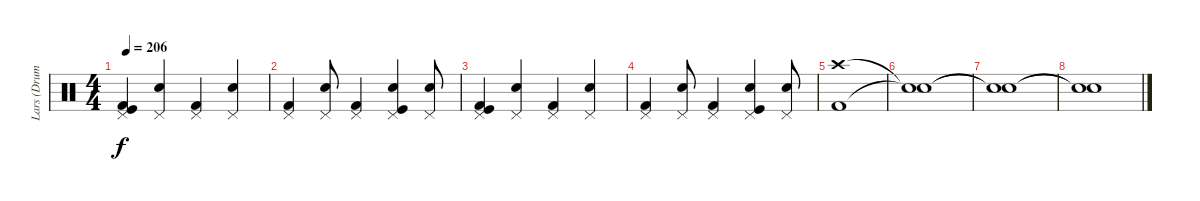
\track ("Lars (Drums)" "Lars (Drum") {instrument percussion}
\staff {score}
\articulation defaults
\ts (4 4)
\tempo 206
\clef neutral
\ks c
("Kick (hit) 2" "Pedal Hi-Hat (hit)" "Kick (hit)").4{dy f} ("Snare (hit) 2" "Pedal Hi-Hat (hit)").4 ("Kick (hit) 2" "Pedal Hi-Hat (hit)").4 ("Snare (hit) 2" "Pedal Hi-Hat (hit)").4 |
("Kick (hit) 2" "Pedal Hi-Hat (hit)").4 ("Snare (hit) 2" "Pedal Hi-Hat (hit)").8 ("Kick (hit) 2" "Pedal Hi-Hat (hit)").4 ("Snare (hit) 2" "Pedal Hi-Hat (hit)" "Kick (hit)").4 ("Snare (hit) 2" "Pedal Hi-Hat (hit)").8 |
("Kick (hit) 2" "Pedal Hi-Hat (hit)" "Kick (hit)").4 ("Snare (hit) 2" "Pedal Hi-Hat (hit)").4 ("Kick (hit) 2" "Pedal Hi-Hat (hit)").4 ("Snare (hit) 2" "Pedal Hi-Hat (hit)").4 |
("Kick (hit) 2" "Pedal Hi-Hat (hit)").4 ("Snare (hit) 2" "Pedal Hi-Hat (hit)").8 ("Kick (hit) 2" "Pedal Hi-Hat (hit)").4 ("Snare (hit) 2" "Pedal Hi-Hat (hit)" "Kick (hit)").4 ("Snare (hit) 2" "Pedal Hi-Hat (hit)").8 |
("Crash high (hit)" "Kick (hit) 2").1 |
("Snare (hit)"{t} "Snare (hit)"{t}).1 |
("Snare (hit)"{t} "Snare (hit)"{t}).1 |
("Snare (hit)"{t} "Snare (hit)"{t}).1
